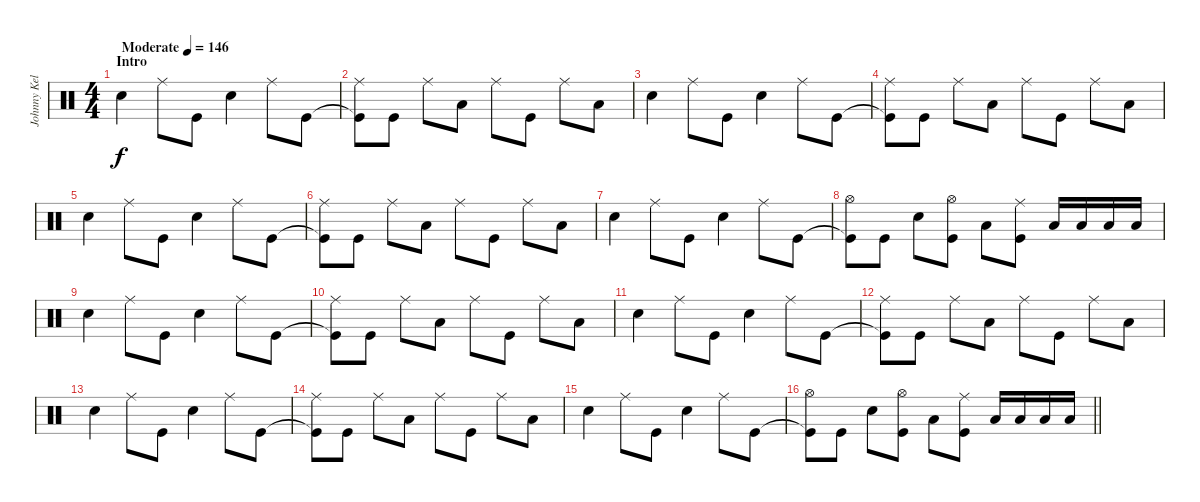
\track ("Johnny Kelly" "Johnny Kel") {instrument percussion}
\staff {score}
\articulation defaults
\ts (4 4)
\section ("" "Intro")
\tempo (146 "Moderate")
\clef neutral
\ks c "Snare (hit) 2".4{dy f} "Ride (middle)".8 "Kick (hit)".8 "Snare (hit) 2".4 "Ride (middle)".8 "Kick (hit)".8
|
("Kick (hit)"{t} "Ride (middle)").8 "Kick (hit)".8 "Ride (middle)".8 "Low Tom (hit)".8 "Ride (middle)".8 "Kick (hit)".8 "Ride (middle)".8 "Low Tom (hit)".8 |
"Snare (hit) 2".4 "Ride (middle)".8 "Kick (hit)".8 "Snare (hit) 2".4 "Ride (middle)".8 "Kick (hit)".8 |
("Kick (hit)"{t} "Ride (middle)").8 "Kick (hit)".8 "Ride (middle)".8 "Low Tom (hit)".8 "Ride (middle)".8 "Kick (hit)".8 "Ride (middle)".8 "Low Tom (hit)".8 |
"Snare (hit) 2".4 "Ride (middle)".8 "Kick (hit)".8 "Snare (hit) 2".4 "Ride (middle)".8 "Kick (hit)".8 |
("Kick (hit)"{t} "Ride (middle)").8 "Kick (hit)".8 "Ride (middle)".8 "Low Tom (hit)".8 "Ride (middle)".8 "Kick (hit)".8 "Ride (middle)".8 "Low Tom (hit)".8 |
"Snare (hit) 2".4 "Ride (middle)".8 "Kick (hit)".8 "Snare (hit) 2".4 "Ride (middle)".8 "Kick (hit)".8 |
("Kick (hit)"{t} "Hi-Hat (open)").8 "Kick (hit)".8 "Snare (hit) 2".8 ("Kick (hit)" "Hi-Hat (open)").8 "Low Tom (hit)".8 ("Kick (hit)" "Ride (middle)").8 "Low Tom (hit)".16 "Low Tom (hit)".16 "Low Tom (hit)".16 "Low Tom (hit)".16 |
"Snare (hit) 2".4 "Ride (middle)".8 "Kick (hit)".8 "Snare (hit) 2".4 "Ride (middle)".8 "Kick (hit)".8 |
("Kick (hit)"{t} "Ride (middle)").8 "Kick (hit)".8 "Ride (middle)".8 "Low Tom (hit)".8 "Ride (middle)".8 "Kick (hit)".8 "Ride (middle)".8 "Low Tom (hit)".8 |
"Snare (hit) 2".4 "Ride (middle)".8 "Kick (hit)".8 "Snare (hit) 2".4 "Ride (middle)".8 "Kick (hit)".8 |
("Kick (hit)"{t} "Ride (middle)").8 "Kick (hit)".8 "Ride (middle)".8 "Low Tom (hit)".8 "Ride (middle)".8 "Kick (hit)".8 "Ride (middle)".8 "Low Tom (hit)".8 |
"Snare (hit) 2".4 "Ride (middle)".8 "Kick (hit)".8 "Snare (hit) 2".4 "Ride (middle)".8 "Kick (hit)".8 |
("Kick (hit)"{t} "Ride (middle)").8 "Kick (hit)".8 "Ride (middle)".8 "Low Tom (hit)".8 "Ride (middle)".8 "Kick (hit)".8 "Ride (middle)".8 "Low Tom (hit)".8 |
"Snare (hit) 2".4 "Ride (middle)".8 "Kick (hit)".8 "Snare (hit) 2".4 "Ride (middle)".8 "Kick (hit)".8 |
\barLineRight lightlight
("Kick (hit)"{t} "Hi-Hat (open)").8 "Kick (hit)".8 "Snare (hit) 2".8 ("Kick (hit)" "Hi-Hat (open)").8 "Low Tom (hit)".8 ("Kick (hit)" "Ride (middle)").8 "Low Tom (hit)".16 "Low Tom (hit)".16 "Low Tom (hit)".16 "Low Tom (hit)".16
